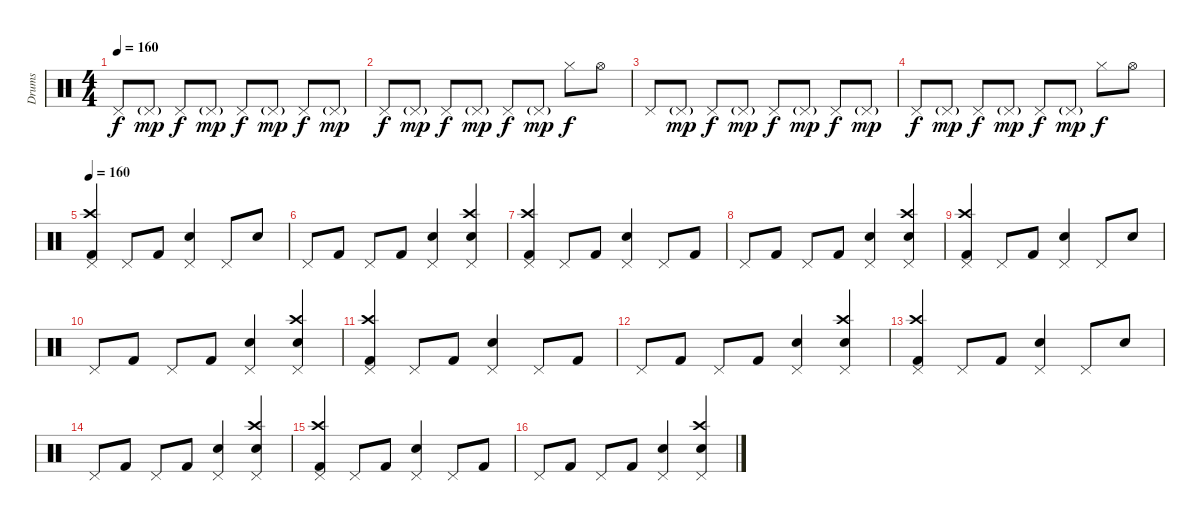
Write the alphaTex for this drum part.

\track ("Drums" "Drums") {instrument percussion}
\staff {score}
\articulation defaults
\ts (4 4)
\tempo 160
\clef neutral
\ks c "Pedal Hi-Hat (hit)".8{dy f} "Pedal Hi-Hat (hit)"{g}.8{dy mp} "Pedal Hi-Hat (hit)".8{dy f} "Pedal Hi-Hat (hit)"{g}.8{dy mp} "Pedal Hi-Hat (hit)".8{dy f} "Pedal Hi-Hat (hit)"{g}.8{dy mp} "Pedal Hi-Hat (hit)".8{dy f} "Pedal Hi-Hat (hit)"{g}.8{dy mp}
|
"Pedal Hi-Hat (hit)".8{dy f} "Pedal Hi-Hat (hit)"{g}.8{dy mp} "Pedal Hi-Hat (hit)".8{dy f} "Pedal Hi-Hat (hit)"{g}.8{dy mp} "Pedal Hi-Hat (hit)".8{dy f} "Pedal Hi-Hat (hit)"{g}.8{dy mp} "Hi-Hat (closed)".8{dy f} "Hi-Hat (open)".8 |
"Pedal Hi-Hat (hit)".8 "Pedal Hi-Hat (hit)"{g}.8{dy mp} "Pedal Hi-Hat (hit)".8{dy f} "Pedal Hi-Hat (hit)"{g}.8{dy mp} "Pedal Hi-Hat (hit)".8{dy f} "Pedal Hi-Hat (hit)"{g}.8{dy mp} "Pedal Hi-Hat (hit)".8{dy f} "Pedal Hi-Hat (hit)"{g}.8{dy mp} |
"Pedal Hi-Hat (hit)".8{dy f} "Pedal Hi-Hat (hit)"{g}.8{dy mp} "Pedal Hi-Hat (hit)".8{dy f} "Pedal Hi-Hat (hit)"{g}.8{dy mp} "Pedal Hi-Hat (hit)".8{dy f} "Pedal Hi-Hat (hit)"{g}.8{dy mp} "Hi-Hat (closed)".8{dy f} "Hi-Hat (open)".8 |
\tempo 160
("Pedal Hi-Hat (hit)" "Crash high (hit)" "Kick (hit) 2").4 "Pedal Hi-Hat (hit)".8 "Kick (hit) 2".8 ("Pedal Hi-Hat (hit)" "Snare (hit) 2").4 "Pedal Hi-Hat (hit)".8 "Snare (hit) 2".8 |
"Pedal Hi-Hat (hit)".8 "Kick (hit) 2".8 "Pedal Hi-Hat (hit)".8 "Kick (hit) 2".8 ("Pedal Hi-Hat (hit)" "Snare (hit) 2").4 ("Pedal Hi-Hat (hit)" "Crash high (hit)" "Snare (hit) 2").4 |
("Pedal Hi-Hat (hit)" "Crash high (hit)" "Kick (hit) 2").4 "Pedal Hi-Hat (hit)".8 "Kick (hit) 2".8 ("Pedal Hi-Hat (hit)" "Snare (hit) 2").4 "Pedal Hi-Hat (hit)".8 "Kick (hit) 2".8 |
"Pedal Hi-Hat (hit)".8 "Kick (hit) 2".8 "Pedal Hi-Hat (hit)".8 "Kick (hit) 2".8 ("Pedal Hi-Hat (hit)" "Snare (hit) 2").4 ("Pedal Hi-Hat (hit)" "Crash high (hit)" "Snare (hit) 2").4 |
("Pedal Hi-Hat (hit)" "Crash high (hit)" "Kick (hit) 2").4 "Pedal Hi-Hat (hit)".8 "Kick (hit) 2".8 ("Pedal Hi-Hat (hit)" "Snare (hit) 2").4 "Pedal Hi-Hat (hit)".8 "Snare (hit) 2".8 |
"Pedal Hi-Hat (hit)".8 "Kick (hit) 2".8 "Pedal Hi-Hat (hit)".8 "Kick (hit) 2".8 ("Pedal Hi-Hat (hit)" "Snare (hit) 2").4 ("Pedal Hi-Hat (hit)" "Crash high (hit)" "Snare (hit) 2").4 |
("Pedal Hi-Hat (hit)" "Crash high (hit)" "Kick (hit) 2").4 "Pedal Hi-Hat (hit)".8 "Kick (hit) 2".8 ("Pedal Hi-Hat (hit)" "Snare (hit) 2").4 "Pedal Hi-Hat (hit)".8 "Kick (hit) 2".8 |
"Pedal Hi-Hat (hit)".8 "Kick (hit) 2".8 "Pedal Hi-Hat (hit)".8 "Kick (hit) 2".8 ("Pedal Hi-Hat (hit)" "Snare (hit) 2").4 ("Pedal Hi-Hat (hit)" "Crash high (hit)" "Snare (hit) 2").4 |
("Pedal Hi-Hat (hit)" "Crash high (hit)" "Kick (hit) 2").4 "Pedal Hi-Hat (hit)".8 "Kick (hit) 2".8 ("Pedal Hi-Hat (hit)" "Snare (hit) 2").4 "Pedal Hi-Hat (hit)".8 "Snare (hit) 2".8 |
"Pedal Hi-Hat (hit)".8 "Kick (hit) 2".8 "Pedal Hi-Hat (hit)".8 "Kick (hit) 2".8 ("Pedal Hi-Hat (hit)" "Snare (hit) 2").4 ("Pedal Hi-Hat (hit)" "Crash high (hit)" "Snare (hit) 2").4 |
("Pedal Hi-Hat (hit)" "Crash high (hit)" "Kick (hit) 2").4 "Pedal Hi-Hat (hit)".8 "Kick (hit) 2".8 ("Pedal Hi-Hat (hit)" "Snare (hit) 2").4 "Pedal Hi-Hat (hit)".8 "Kick (hit) 2".8 |
"Pedal Hi-Hat (hit)".8 "Kick (hit) 2".8 "Pedal Hi-Hat (hit)".8 "Kick (hit) 2".8 ("Pedal Hi-Hat (hit)" "Snare (hit) 2").4 ("Pedal Hi-Hat (hit)" "Crash high (hit)" "Snare (hit) 2").4
